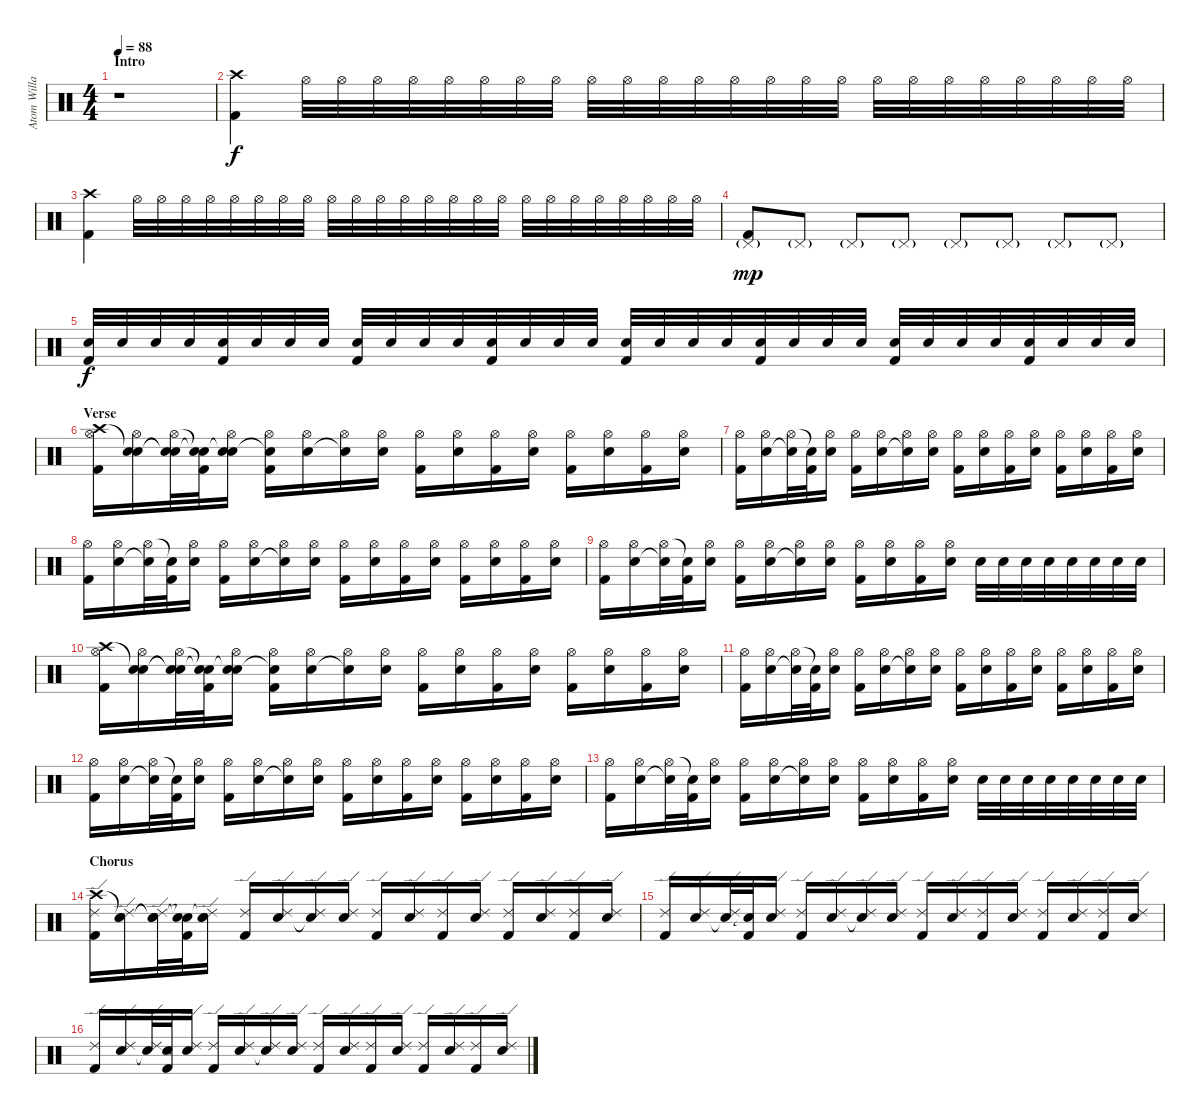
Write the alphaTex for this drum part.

\track ("Atom Willard (Drums)" "Atom Willa") {instrument percussion}
\staff {score}
\articulation defaults
\ts (4 4)
\section ("" "Intro")
\tempo 88
\clef neutral
\ks c
r.1{dy f} |
("Crash high (hit)" "Kick (hit) 2").4 "Hi-Hat (open)".32{volume 0} "Hi-Hat (open)".32 "Hi-Hat (open)".32 "Hi-Hat (open)".32{volume 2} "Hi-Hat (open)".32 "Hi-Hat (open)".32 "Hi-Hat (open)".32 "Hi-Hat (open)".32{volume 5} "Hi-Hat (open)".32 "Hi-Hat (open)".32 "Hi-Hat (open)".32 "Hi-Hat (open)".32{volume 8} "Hi-Hat (open)".32 "Hi-Hat (open)".32 "Hi-Hat (open)".32{volume 10} "Hi-Hat (open)".32 "Hi-Hat (open)".32 "Hi-Hat (open)".32 "Hi-Hat (open)".32 "Hi-Hat (open)".32{volume 13} "Hi-Hat (open)".32 "Hi-Hat (open)".32 "Hi-Hat (open)".32 "Hi-Hat (open)".32 |
("Crash high (hit)" "Kick (hit) 2").4 "Hi-Hat (open)".32{volume 0} "Hi-Hat (open)".32 "Hi-Hat (open)".32 "Hi-Hat (open)".32{volume 2} "Hi-Hat (open)".32 "Hi-Hat (open)".32 "Hi-Hat (open)".32 "Hi-Hat (open)".32{volume 5} "Hi-Hat (open)".32 "Hi-Hat (open)".32 "Hi-Hat (open)".32 "Hi-Hat (open)".32{volume 8} "Hi-Hat (open)".32 "Hi-Hat (open)".32 "Hi-Hat (open)".32{volume 10} "Hi-Hat (open)".32 "Hi-Hat (open)".32 "Hi-Hat (open)".32 "Hi-Hat (open)".32 "Hi-Hat (open)".32{volume 13} "Hi-Hat (open)".32 "Hi-Hat (open)".32 "Hi-Hat (open)".32 "Hi-Hat (open)".32 |
("Pedal Hi-Hat (hit)"{g} "Kick (hit) 2").8{dy mp} "Pedal Hi-Hat (hit)"{g}.8 "Pedal Hi-Hat (hit)"{g}.8 "Pedal Hi-Hat (hit)"{g}.8 "Pedal Hi-Hat (hit)"{g}.8 "Pedal Hi-Hat (hit)"{g}.8 "Pedal Hi-Hat (hit)"{g}.8 "Pedal Hi-Hat (hit)"{g}.8 |
("Electric Snare (hit)" "Kick (hit) 2").32{dy f} "Electric Snare (hit)".32 "Electric Snare (hit)".32 "Electric Snare (hit)".32 ("Electric Snare (hit)" "Kick (hit) 2").32 "Electric Snare (hit)".32 "Electric Snare (hit)".32 "Electric Snare (hit)".32 ("Electric Snare (hit)" "Kick (hit) 2").32 "Electric Snare (hit)".32 "Electric Snare (hit)".32 "Electric Snare (hit)".32 ("Electric Snare (hit)" "Kick (hit) 2").32 "Electric Snare (hit)".32 "Electric Snare (hit)".32 "Electric Snare (hit)".32 ("Electric Snare (hit)" "Kick (hit) 2").32 "Electric Snare (hit)".32 "Electric Snare (hit)".32 "Electric Snare (hit)".32 ("Electric Snare (hit)" "Kick (hit) 2").32 "Electric Snare (hit)".32 "Electric Snare (hit)".32 "Electric Snare (hit)".32 ("Electric Snare (hit)" "Kick (hit) 2").32 "Electric Snare (hit)".32 "Electric Snare (hit)".32 "Electric Snare (hit)".32 ("Electric Snare (hit)" "Kick (hit) 2").32 "Electric Snare (hit)".32 "Electric Snare (hit)".32 "Electric Snare (hit)".32 |
\section ("" "Verse")
("Crash high (hit)" "Hi-Hat (open)" "Kick (hit) 2").16 ("Snare (hit)"{t} "Hi-Hat (open)" "Electric Snare (hit)").16 ("Snare (hit)"{t} "Hi-Hat (open)" "Snare (hit)"{t}).32 ("Snare (hit)"{t} "Snare (hit)"{t} "Kick (hit) 2").32 ("Snare (hit)"{t} "Hi-Hat (open)" "Electric Snare (hit)").16 ("Snare (hit)"{t} "Hi-Hat (open)" "Kick (hit) 2").16 ("Hi-Hat (open)" "Electric Snare (hit)").16 ("Hi-Hat (open)" "Snare (hit)"{t}).16 ("Hi-Hat (open)" "Electric Snare (hit)").16 ("Hi-Hat (open)" "Kick (hit) 2").16 ("Hi-Hat (open)" "Electric Snare (hit)").16 ("Hi-Hat (open)" "Kick (hit) 2").16 ("Hi-Hat (open)" "Electric Snare (hit)").16 ("Hi-Hat (open)" "Kick (hit) 2").16 ("Hi-Hat (open)" "Electric Snare (hit)").16 ("Hi-Hat (open)" "Kick (hit) 2").16 ("Hi-Hat (open)" "Electric Snare (hit)").16 |
("Hi-Hat (open)" "Kick (hit) 2").16 ("Hi-Hat (open)" "Electric Snare (hit)").16 ("Hi-Hat (open)" "Snare (hit)"{t}).32 ("Snare (hit)"{t} "Kick (hit) 2").32 ("Hi-Hat (open)" "Electric Snare (hit)").16 ("Hi-Hat (open)" "Kick (hit) 2").16 ("Hi-Hat (open)" "Electric Snare (hit)").16 ("Hi-Hat (open)" "Snare (hit)"{t}).16 ("Hi-Hat (open)" "Electric Snare (hit)").16 ("Hi-Hat (open)" "Kick (hit) 2").16 ("Hi-Hat (open)" "Electric Snare (hit)").16 ("Hi-Hat (open)" "Kick (hit) 2").16 ("Hi-Hat (open)" "Electric Snare (hit)").16 ("Hi-Hat (open)" "Kick (hit) 2").16 ("Hi-Hat (open)" "Electric Snare (hit)").16 ("Hi-Hat (open)" "Kick (hit) 2").16 ("Hi-Hat (open)" "Electric Snare (hit)").16 |
("Hi-Hat (open)" "Kick (hit) 2").16 ("Hi-Hat (open)" "Electric Snare (hit)").16 ("Hi-Hat (open)" "Snare (hit)"{t}).32 ("Snare (hit)"{t} "Kick (hit) 2").32 ("Hi-Hat (open)" "Electric Snare (hit)").16 ("Hi-Hat (open)" "Kick (hit) 2").16 ("Hi-Hat (open)" "Electric Snare (hit)").16 ("Hi-Hat (open)" "Snare (hit)"{t}).16 ("Hi-Hat (open)" "Electric Snare (hit)").16 ("Hi-Hat (open)" "Kick (hit) 2").16 ("Hi-Hat (open)" "Electric Snare (hit)").16 ("Hi-Hat (open)" "Kick (hit) 2").16 ("Hi-Hat (open)" "Electric Snare (hit)").16 ("Hi-Hat (open)" "Kick (hit) 2").16 ("Hi-Hat (open)" "Electric Snare (hit)").16 ("Hi-Hat (open)" "Kick (hit) 2").16 ("Hi-Hat (open)" "Electric Snare (hit)").16 |
("Hi-Hat (open)" "Kick (hit) 2").16 ("Hi-Hat (open)" "Electric Snare (hit)").16 ("Hi-Hat (open)" "Snare (hit)"{t}).32 ("Snare (hit)"{t} "Kick (hit) 2").32 ("Hi-Hat (open)" "Electric Snare (hit)").16 ("Hi-Hat (open)" "Kick (hit) 2").16 ("Hi-Hat (open)" "Electric Snare (hit)").16 ("Hi-Hat (open)" "Snare (hit)"{t}).16 ("Hi-Hat (open)" "Electric Snare (hit)").16 ("Hi-Hat (open)" "Kick (hit) 2").16 ("Hi-Hat (open)" "Electric Snare (hit)").16 ("Hi-Hat (open)" "Kick (hit) 2").16 ("Hi-Hat (open)" "Electric Snare (hit)").16 "Electric Snare (hit)".32 "Electric Snare (hit)".32 "Electric Snare (hit)".32 "Electric Snare (hit)".32 "Electric Snare (hit)".32 "Electric Snare (hit)".32 "Electric Snare (hit)".32 "Electric Snare (hit)".32 |
("Crash high (hit)" "Hi-Hat (open)" "Kick (hit) 2").16 ("Snare (hit)"{t} "Hi-Hat (open)" "Electric Snare (hit)").16 ("Snare (hit)"{t} "Hi-Hat (open)" "Snare (hit)"{t}).32 ("Snare (hit)"{t} "Snare (hit)"{t} "Kick (hit) 2").32 ("Snare (hit)"{t} "Hi-Hat (open)" "Electric Snare (hit)").16 ("Snare (hit)"{t} "Hi-Hat (open)" "Kick (hit) 2").16 ("Hi-Hat (open)" "Electric Snare (hit)").16 ("Hi-Hat (open)" "Snare (hit)"{t}).16 ("Hi-Hat (open)" "Electric Snare (hit)").16 ("Hi-Hat (open)" "Kick (hit) 2").16 ("Hi-Hat (open)" "Electric Snare (hit)").16 ("Hi-Hat (open)" "Kick (hit) 2").16 ("Hi-Hat (open)" "Electric Snare (hit)").16 ("Hi-Hat (open)" "Kick (hit) 2").16 ("Hi-Hat (open)" "Electric Snare (hit)").16 ("Hi-Hat (open)" "Kick (hit) 2").16 ("Hi-Hat (open)" "Electric Snare (hit)").16 |
("Hi-Hat (open)" "Kick (hit) 2").16 ("Hi-Hat (open)" "Electric Snare (hit)").16 ("Hi-Hat (open)" "Snare (hit)"{t}).32 ("Snare (hit)"{t} "Kick (hit) 2").32 ("Hi-Hat (open)" "Electric Snare (hit)").16 ("Hi-Hat (open)" "Kick (hit) 2").16 ("Hi-Hat (open)" "Electric Snare (hit)").16 ("Hi-Hat (open)" "Snare (hit)"{t}).16 ("Hi-Hat (open)" "Electric Snare (hit)").16 ("Hi-Hat (open)" "Kick (hit) 2").16 ("Hi-Hat (open)" "Electric Snare (hit)").16 ("Hi-Hat (open)" "Kick (hit) 2").16 ("Hi-Hat (open)" "Electric Snare (hit)").16 ("Hi-Hat (open)" "Kick (hit) 2").16 ("Hi-Hat (open)" "Electric Snare (hit)").16 ("Hi-Hat (open)" "Kick (hit) 2").16 ("Hi-Hat (open)" "Electric Snare (hit)").16 |
("Hi-Hat (open)" "Kick (hit) 2").16 ("Hi-Hat (open)" "Electric Snare (hit)").16 ("Hi-Hat (open)" "Snare (hit)"{t}).32 ("Snare (hit)"{t} "Kick (hit) 2").32 ("Hi-Hat (open)" "Electric Snare (hit)").16 ("Hi-Hat (open)" "Kick (hit) 2").16 ("Hi-Hat (open)" "Electric Snare (hit)").16 ("Hi-Hat (open)" "Snare (hit)"{t}).16 ("Hi-Hat (open)" "Electric Snare (hit)").16 ("Hi-Hat (open)" "Kick (hit) 2").16 ("Hi-Hat (open)" "Electric Snare (hit)").16 ("Hi-Hat (open)" "Kick (hit) 2").16 ("Hi-Hat (open)" "Electric Snare (hit)").16 ("Hi-Hat (open)" "Kick (hit) 2").16 ("Hi-Hat (open)" "Electric Snare (hit)").16 ("Hi-Hat (open)" "Kick (hit) 2").16 ("Hi-Hat (open)" "Electric Snare (hit)").16 |
("Hi-Hat (open)" "Kick (hit) 2").16 ("Hi-Hat (open)" "Electric Snare (hit)").16 ("Hi-Hat (open)" "Snare (hit)"{t}).32 ("Snare (hit)"{t} "Kick (hit) 2").32 ("Hi-Hat (open)" "Electric Snare (hit)").16 ("Hi-Hat (open)" "Kick (hit) 2").16 ("Hi-Hat (open)" "Electric Snare (hit)").16 ("Hi-Hat (open)" "Snare (hit)"{t}).16 ("Hi-Hat (open)" "Electric Snare (hit)").16 ("Hi-Hat (open)" "Kick (hit) 2").16 ("Hi-Hat (open)" "Electric Snare (hit)").16 ("Hi-Hat (open)" "Kick (hit) 2").16 ("Hi-Hat (open)" "Electric Snare (hit)").16 "Electric Snare (hit)".32 "Electric Snare (hit)".32 "Electric Snare (hit)".32 "Electric Snare (hit)".32 "Electric Snare (hit)".32 "Electric Snare (hit)".32 "Electric Snare (hit)".32 "Electric Snare (hit)".32 |
\section ("" "Chorus")
("Crash high (hit)" "Ride (edge) 2" "Kick (hit) 2").16 ("Snare (hit)"{t} "Ride (edge) 2" "Electric Snare (hit)").16 ("Snare (hit)"{t} "Ride (edge) 2" "Snare (hit)"{t}).32 ("Snare (hit)"{t} "Snare (hit)"{t} "Kick (hit) 2").32 ("Snare (hit)"{t} "Ride (edge) 2" "Electric Snare (hit)").16 ("Ride (edge) 2" "Kick (hit) 2").16 ("Ride (edge) 2" "Electric Snare (hit)").16 ("Ride (edge) 2" "Snare (hit)"{t}).16 ("Ride (edge) 2" "Electric Snare (hit)").16 ("Ride (edge) 2" "Kick (hit) 2").16 ("Ride (edge) 2" "Electric Snare (hit)").16 ("Ride (edge) 2" "Kick (hit) 2").16 ("Ride (edge) 2" "Electric Snare (hit)").16 ("Ride (edge) 2" "Kick (hit) 2").16 ("Ride (edge) 2" "Electric Snare (hit)").16 ("Ride (edge) 2" "Kick (hit) 2").16 ("Ride (edge) 2" "Electric Snare (hit)").16 |
("Ride (edge) 2" "Kick (hit) 2").16 ("Ride (edge) 2" "Electric Snare (hit)").16 ("Ride (edge) 2" "Snare (hit)"{t}).32 ("Snare (hit)"{t} "Kick (hit) 2").32 ("Ride (edge) 2" "Electric Snare (hit)").16 ("Ride (edge) 2" "Kick (hit) 2").16 ("Ride (edge) 2" "Electric Snare (hit)").16 ("Ride (edge) 2" "Snare (hit)"{t}).16 ("Ride (edge) 2" "Electric Snare (hit)").16 ("Ride (edge) 2" "Kick (hit) 2").16 ("Ride (edge) 2" "Electric Snare (hit)").16 ("Ride (edge) 2" "Kick (hit) 2").16 ("Ride (edge) 2" "Electric Snare (hit)").16 ("Ride (edge) 2" "Kick (hit) 2").16 ("Ride (edge) 2" "Electric Snare (hit)").16 ("Ride (edge) 2" "Kick (hit) 2").16 ("Ride (edge) 2" "Electric Snare (hit)").16 |
("Ride (edge) 2" "Kick (hit) 2").16 ("Ride (edge) 2" "Electric Snare (hit)").16 ("Ride (edge) 2" "Snare (hit)"{t}).32 ("Snare (hit)"{t} "Kick (hit) 2").32 ("Ride (edge) 2" "Electric Snare (hit)").16 ("Ride (edge) 2" "Kick (hit) 2").16 ("Ride (edge) 2" "Electric Snare (hit)").16 ("Ride (edge) 2" "Snare (hit)"{t}).16 ("Ride (edge) 2" "Electric Snare (hit)").16 ("Ride (edge) 2" "Kick (hit) 2").16 ("Ride (edge) 2" "Electric Snare (hit)").16 ("Ride (edge) 2" "Kick (hit) 2").16 ("Ride (edge) 2" "Electric Snare (hit)").16 ("Ride (edge) 2" "Kick (hit) 2").16 ("Ride (edge) 2" "Electric Snare (hit)").16 ("Ride (edge) 2" "Kick (hit) 2").16 ("Ride (edge) 2" "Electric Snare (hit)").16
